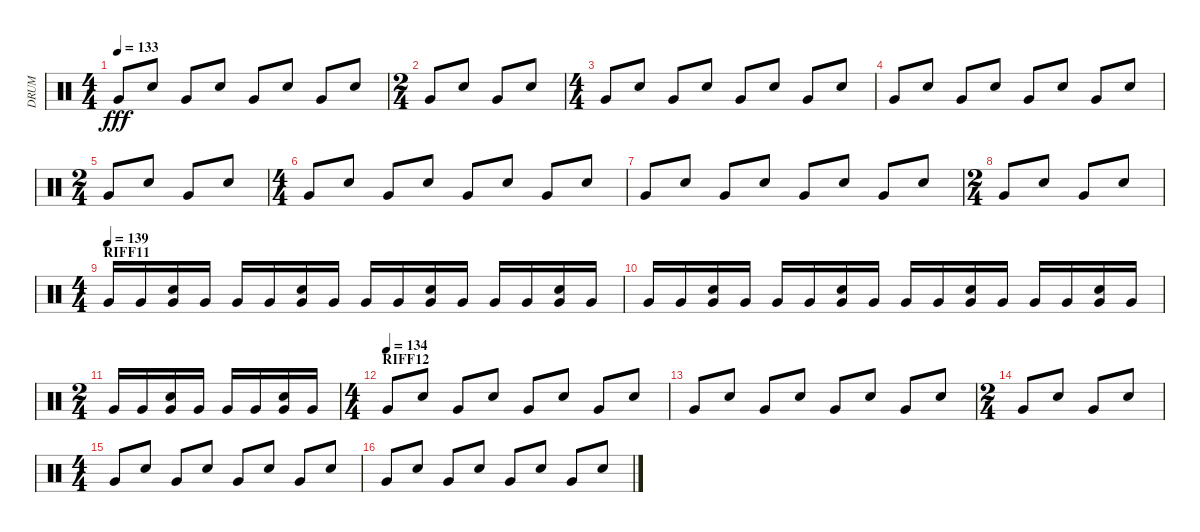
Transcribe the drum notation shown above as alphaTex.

\track ("DRUM" "DRUM") {instrument percussion}
\staff {score}
\articulation defaults
\ts (4 4)
\tempo 133
\clef neutral
\ks c "Very Low Tom (hit)".8{dy fff} "Electric Snare (hit)".8 "Very Low Tom (hit)".8 "Electric Snare (hit)".8 "Very Low Tom (hit)".8 "Electric Snare (hit)".8 "Very Low Tom (hit)".8 "Electric Snare (hit)".8
|
\ts (2 4)
"Very Low Tom (hit)".8 "Electric Snare (hit)".8 "Very Low Tom (hit)".8 "Electric Snare (hit)".8 |
\ts (4 4)
"Very Low Tom (hit)".8 "Electric Snare (hit)".8 "Very Low Tom (hit)".8 "Electric Snare (hit)".8 "Very Low Tom (hit)".8 "Electric Snare (hit)".8 "Very Low Tom (hit)".8 "Electric Snare (hit)".8 |
"Very Low Tom (hit)".8 "Electric Snare (hit)".8 "Very Low Tom (hit)".8 "Electric Snare (hit)".8 "Very Low Tom (hit)".8 "Electric Snare (hit)".8 "Very Low Tom (hit)".8 "Electric Snare (hit)".8 |
\ts (2 4)
"Very Low Tom (hit)".8 "Electric Snare (hit)".8 "Very Low Tom (hit)".8 "Electric Snare (hit)".8 |
\ts (4 4)
"Very Low Tom (hit)".8 "Electric Snare (hit)".8 "Very Low Tom (hit)".8 "Electric Snare (hit)".8 "Very Low Tom (hit)".8 "Electric Snare (hit)".8 "Very Low Tom (hit)".8 "Electric Snare (hit)".8 |
"Very Low Tom (hit)".8 "Electric Snare (hit)".8 "Very Low Tom (hit)".8 "Electric Snare (hit)".8 "Very Low Tom (hit)".8 "Electric Snare (hit)".8 "Very Low Tom (hit)".8 "Electric Snare (hit)".8 |
\ts (2 4)
"Very Low Tom (hit)".8 "Electric Snare (hit)".8 "Very Low Tom (hit)".8 "Electric Snare (hit)".8 |
\ts (4 4)
\section ("" "RIFF11")
\tempo (139)
"Very Low Tom (hit)".16 "Very Low Tom (hit)".16 ("Very Low Tom (hit)" "Electric Snare (hit)").16 "Very Low Tom (hit)".16 "Very Low Tom (hit)".16 "Very Low Tom (hit)".16 ("Very Low Tom (hit)" "Electric Snare (hit)").16 "Very Low Tom (hit)".16 "Very Low Tom (hit)".16 "Very Low Tom (hit)".16 ("Very Low Tom (hit)" "Electric Snare (hit)").16 "Very Low Tom (hit)".16 "Very Low Tom (hit)".16 "Very Low Tom (hit)".16 ("Very Low Tom (hit)" "Electric Snare (hit)").16 "Very Low Tom (hit)".16 |
"Very Low Tom (hit)".16 "Very Low Tom (hit)".16 ("Very Low Tom (hit)" "Electric Snare (hit)").16 "Very Low Tom (hit)".16 "Very Low Tom (hit)".16 "Very Low Tom (hit)".16 ("Very Low Tom (hit)" "Electric Snare (hit)").16 "Very Low Tom (hit)".16 "Very Low Tom (hit)".16 "Very Low Tom (hit)".16 ("Very Low Tom (hit)" "Electric Snare (hit)").16 "Very Low Tom (hit)".16 "Very Low Tom (hit)".16 "Very Low Tom (hit)".16 ("Very Low Tom (hit)" "Electric Snare (hit)").16 "Very Low Tom (hit)".16 |
\ts (2 4)
"Very Low Tom (hit)".16 "Very Low Tom (hit)".16 ("Very Low Tom (hit)" "Electric Snare (hit)").16 "Very Low Tom (hit)".16 "Very Low Tom (hit)".16 "Very Low Tom (hit)".16 ("Very Low Tom (hit)" "Electric Snare (hit)").16 "Very Low Tom (hit)".16 |
\ts (4 4)
\section ("" "RIFF12")
\tempo (134)
"Very Low Tom (hit)".8 "Electric Snare (hit)".8 "Very Low Tom (hit)".8 "Electric Snare (hit)".8 "Very Low Tom (hit)".8 "Electric Snare (hit)".8 "Very Low Tom (hit)".8 "Electric Snare (hit)".8 |
"Very Low Tom (hit)".8 "Electric Snare (hit)".8 "Very Low Tom (hit)".8 "Electric Snare (hit)".8 "Very Low Tom (hit)".8 "Electric Snare (hit)".8 "Very Low Tom (hit)".8 "Electric Snare (hit)".8 |
\ts (2 4)
"Very Low Tom (hit)".8 "Electric Snare (hit)".8 "Very Low Tom (hit)".8 "Electric Snare (hit)".8 |
\ts (4 4)
"Very Low Tom (hit)".8 "Electric Snare (hit)".8 "Very Low Tom (hit)".8 "Electric Snare (hit)".8 "Very Low Tom (hit)".8 "Electric Snare (hit)".8 "Very Low Tom (hit)".8 "Electric Snare (hit)".8 |
"Very Low Tom (hit)".8 "Electric Snare (hit)".8 "Very Low Tom (hit)".8 "Electric Snare (hit)".8 "Very Low Tom (hit)".8 "Electric Snare (hit)".8 "Very Low Tom (hit)".8 "Electric Snare (hit)".8
